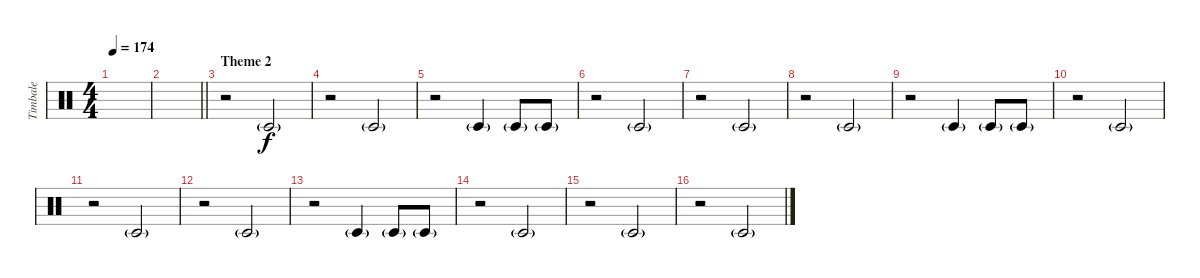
\track ("Timbale" "Timbale") {instrument percussion}
\staff {score}
\articulation defaults
\ts (4 4)
\tempo 174
\clef neutral
\ks c
|
\barLineRight lightlight
|
\section ("" "Theme 2")
r.2 "Timbale low (hit)"{g}.2 |
r.2 "Timbale low (hit)"{g}.2 |
r.2 "Timbale low (hit)"{g}.4 "Timbale low (hit)"{g}.8 "Timbale low (hit)"{g}.8 |
r.2 "Timbale low (hit)"{g}.2 |
r.2 "Timbale low (hit)"{g}.2 |
r.2 "Timbale low (hit)"{g}.2 |
r.2 "Timbale low (hit)"{g}.4 "Timbale low (hit)"{g}.8 "Timbale low (hit)"{g}.8 |
r.2 "Timbale low (hit)"{g}.2 |
r.2 "Timbale low (hit)"{g}.2 |
r.2 "Timbale low (hit)"{g}.2 |
r.2 "Timbale low (hit)"{g}.4 "Timbale low (hit)"{g}.8 "Timbale low (hit)"{g}.8 |
r.2 "Timbale low (hit)"{g}.2 |
r.2 "Timbale low (hit)"{g}.2 |
r.2 "Timbale low (hit)"{g}.2
